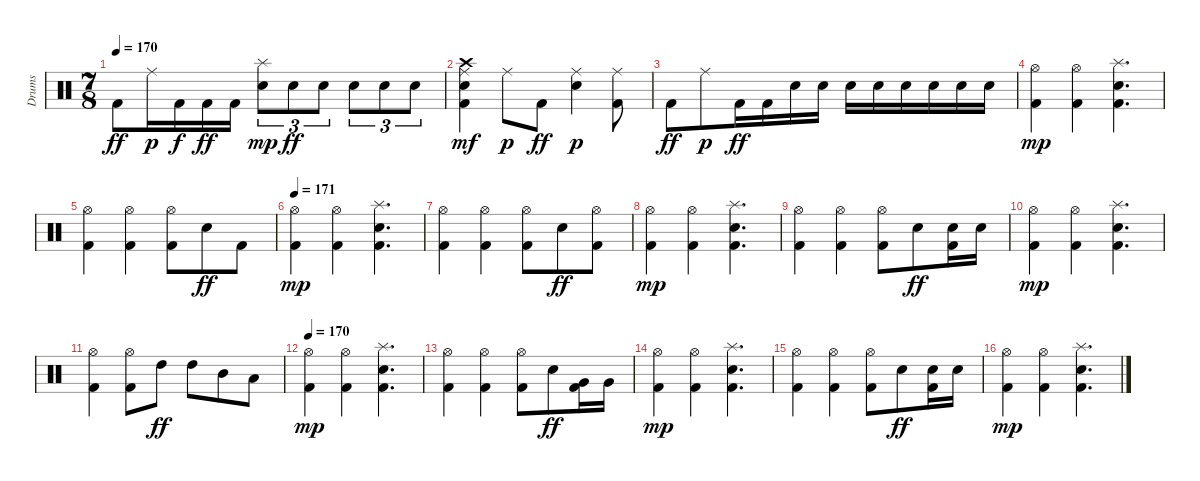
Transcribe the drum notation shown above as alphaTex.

\track ("Drums" "Drums") {instrument percussion}
\staff {score}
\articulation defaults
\ts (7 8)
\tempo 170
\clef neutral
\ks c "Kick (hit) 2".8{dy ff} "Ride (middle)".16{dy p} "Kick (hit) 2".16{dy f} "Kick (hit) 2".16{dy ff} "Kick (hit) 2".16
("Electric Snare (hit)" "Splash (hit)").8{tu (3 2) dy mp} "Electric Snare (hit)".8{tu (3 2) dy ff} "Electric Snare (hit)".8{tu (3 2)} "Electric Snare (hit)".8{tu (3 2)} "Electric Snare (hit)".8{tu (3 2)} "Electric Snare (hit)".8{tu (3 2)} |
("Kick (hit) 2" "Electric Snare (hit)" "Ride (middle)" "Crash high (hit)").4{dy mf} "Ride (middle)".8{dy p} "Kick (hit) 2".8{dy ff} ("Electric Snare (hit)" "Ride (middle)").4{dy p} ("Kick (hit) 2" "Ride (middle)").8 |
"Kick (hit) 2".8{dy ff} "Ride (middle)".8{dy p} "Kick (hit) 2".16{dy ff} "Kick (hit) 2".16 "Electric Snare (hit)".16 "Electric Snare (hit)".16 "Electric Snare (hit)".16 "Electric Snare (hit)".16 "Electric Snare (hit)".16 "Electric Snare (hit)".16 "Electric Snare (hit)".16 "Electric Snare (hit)".16 |
("Kick (hit) 2" "Hi-Hat (open)").4{dy mp} ("Kick (hit) 2" "Hi-Hat (open)").4 ("Kick (hit) 2" "Electric Snare (hit)" "Splash (hit)").4{d} |
("Kick (hit) 2" "Hi-Hat (open)").4 ("Kick (hit) 2" "Hi-Hat (open)").4 ("Kick (hit) 2" "Hi-Hat (open)").8 "Electric Snare (hit)".8{dy ff} "Kick (hit) 2".8 |
\tempo 171
("Kick (hit) 2" "Hi-Hat (open)").4{dy mp} ("Kick (hit) 2" "Hi-Hat (open)").4 ("Kick (hit) 2" "Electric Snare (hit)" "Splash (hit)").4{d} |
("Kick (hit) 2" "Hi-Hat (open)").4 ("Kick (hit) 2" "Hi-Hat (open)").4 ("Kick (hit) 2" "Hi-Hat (open)").8 "Electric Snare (hit)".8{dy ff} ("Kick (hit) 2" "Hi-Hat (open)").8 |
("Kick (hit) 2" "Hi-Hat (open)").4{dy mp} ("Kick (hit) 2" "Hi-Hat (open)").4 ("Kick (hit) 2" "Electric Snare (hit)" "Splash (hit)").4{d} |
("Kick (hit) 2" "Hi-Hat (open)").4 ("Kick (hit) 2" "Hi-Hat (open)").4 ("Kick (hit) 2" "Hi-Hat (open)").8 "Electric Snare (hit)".8{dy ff} ("Kick (hit) 2" "Electric Snare (hit)").16 "Electric Snare (hit)".16 |
("Kick (hit) 2" "Hi-Hat (open)").4{dy mp} ("Kick (hit) 2" "Hi-Hat (open)").4 ("Kick (hit) 2" "Electric Snare (hit)" "Splash (hit)").4{d} |
("Kick (hit) 2" "Hi-Hat (open)").4 ("Kick (hit) 2" "Hi-Hat (open)").8 "High Tom (hit)".8{dy ff} "High Tom (hit)".8 "Mid Tom (hit)".8 "Low Tom (hit)".8 |
\tempo 170
("Kick (hit) 2" "Hi-Hat (open)").4{dy mp} ("Kick (hit) 2" "Hi-Hat (open)").4 ("Kick (hit) 2" "Electric Snare (hit)" "Splash (hit)").4{d} |
("Kick (hit) 2" "Hi-Hat (open)").4 ("Kick (hit) 2" "Hi-Hat (open)").4 ("Kick (hit) 2" "Hi-Hat (open)").8 "Electric Snare (hit)".8{dy ff} ("Kick (hit) 2" "Very Low Tom (hit)").16 "Very Low Tom (hit)".16 |
("Kick (hit) 2" "Hi-Hat (open)").4{dy mp} ("Kick (hit) 2" "Hi-Hat (open)").4 ("Kick (hit) 2" "Electric Snare (hit)" "Splash (hit)").4{d} |
("Kick (hit) 2" "Hi-Hat (open)").4 ("Kick (hit) 2" "Hi-Hat (open)").4 ("Kick (hit) 2" "Hi-Hat (open)").8 "Electric Snare (hit)".8{dy ff} ("Kick (hit) 2" "Electric Snare (hit)").16 "Electric Snare (hit)".16 |
("Kick (hit) 2" "Hi-Hat (open)").4{dy mp} ("Kick (hit) 2" "Hi-Hat (open)").4 ("Kick (hit) 2" "Electric Snare (hit)" "Splash (hit)").4{d}
